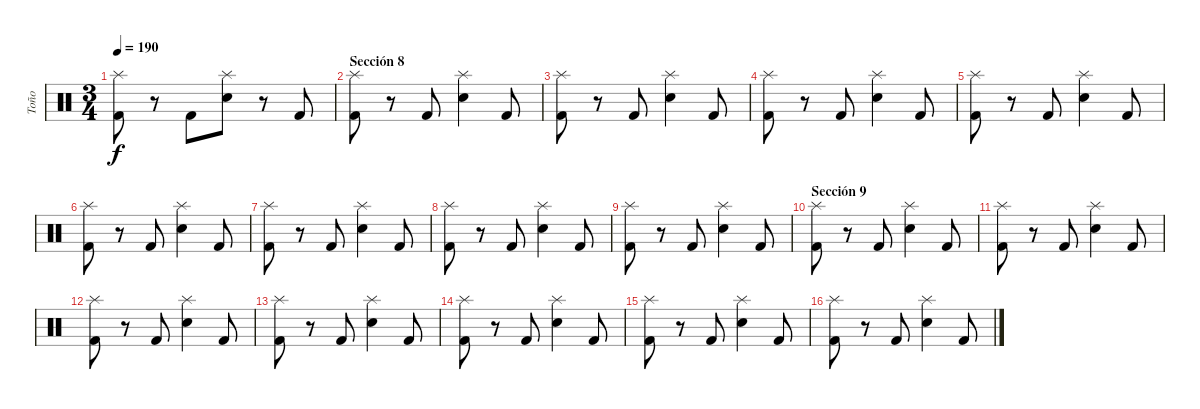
\track ("Toño" "Toño") {instrument percussion}
\staff {score}
\articulation defaults
\ts (3 4)
\tempo 190
\clef neutral
\ks c
("Splash (hit)" "Kick (hit) 2").8{dy f} r.8 "Kick (hit) 2".8 ("Splash (hit)" "Electric Snare (hit)").8 r.8 "Kick (hit) 2".8 |
\section ("" "Sección 8")
("Splash (hit)" "Kick (hit) 2").8 r.8 "Kick (hit) 2".8 ("Splash (hit)" "Electric Snare (hit)").4 "Kick (hit) 2".8 |
("Splash (hit)" "Kick (hit) 2").8 r.8 "Kick (hit) 2".8 ("Splash (hit)" "Electric Snare (hit)").4 "Kick (hit) 2".8 |
("Splash (hit)" "Kick (hit) 2").8 r.8 "Kick (hit) 2".8 ("Splash (hit)" "Electric Snare (hit)").4 "Kick (hit) 2".8 |
("Splash (hit)" "Kick (hit) 2").8 r.8 "Kick (hit) 2".8 ("Splash (hit)" "Electric Snare (hit)").4 "Kick (hit) 2".8 |
("Splash (hit)" "Kick (hit) 2").8 r.8 "Kick (hit) 2".8 ("Splash (hit)" "Electric Snare (hit)").4 "Kick (hit) 2".8 |
("Splash (hit)" "Kick (hit) 2").8 r.8 "Kick (hit) 2".8 ("Splash (hit)" "Electric Snare (hit)").4 "Kick (hit) 2".8 |
("Splash (hit)" "Kick (hit) 2").8 r.8 "Kick (hit) 2".8 ("Splash (hit)" "Electric Snare (hit)").4 "Kick (hit) 2".8 |
("Splash (hit)" "Kick (hit) 2").8 r.8 "Kick (hit) 2".8 ("Splash (hit)" "Electric Snare (hit)").4 "Kick (hit) 2".8 |
\section ("" "Sección 9")
("Splash (hit)" "Kick (hit) 2").8 r.8 "Kick (hit) 2".8 ("Splash (hit)" "Electric Snare (hit)").4 "Kick (hit) 2".8 |
("Splash (hit)" "Kick (hit) 2").8 r.8 "Kick (hit) 2".8 ("Splash (hit)" "Electric Snare (hit)").4 "Kick (hit) 2".8 |
("Splash (hit)" "Kick (hit) 2").8 r.8 "Kick (hit) 2".8 ("Splash (hit)" "Electric Snare (hit)").4 "Kick (hit) 2".8 |
("Splash (hit)" "Kick (hit) 2").8 r.8 "Kick (hit) 2".8 ("Splash (hit)" "Electric Snare (hit)").4 "Kick (hit) 2".8 |
("Splash (hit)" "Kick (hit) 2").8 r.8 "Kick (hit) 2".8 ("Splash (hit)" "Electric Snare (hit)").4 "Kick (hit) 2".8 |
("Splash (hit)" "Kick (hit) 2").8 r.8 "Kick (hit) 2".8 ("Splash (hit)" "Electric Snare (hit)").4 "Kick (hit) 2".8 |
("Splash (hit)" "Kick (hit) 2").8 r.8 "Kick (hit) 2".8 ("Splash (hit)" "Electric Snare (hit)").4 "Kick (hit) 2".8
